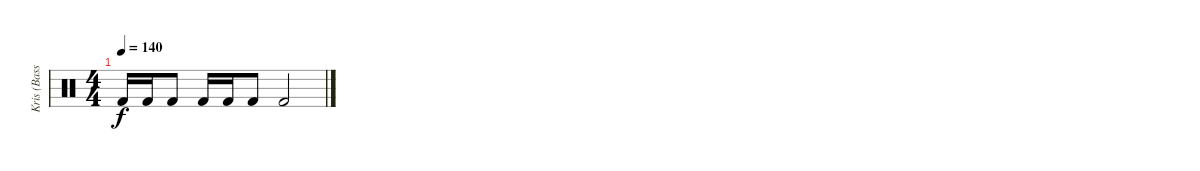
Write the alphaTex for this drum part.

\track ("Kris (Bass Drums)" "Kris (Bass") {instrument percussion}
\staff {score}
\articulation defaults
\ts (4 4)
\tempo 140
\clef neutral
\ks c "Kick (hit) 2".16{dy f} "Kick (hit) 2".16 "Kick (hit) 2".8 "Kick (hit) 2".16 "Kick (hit) 2".16 "Kick (hit) 2".8 "Kick (hit) 2".2
